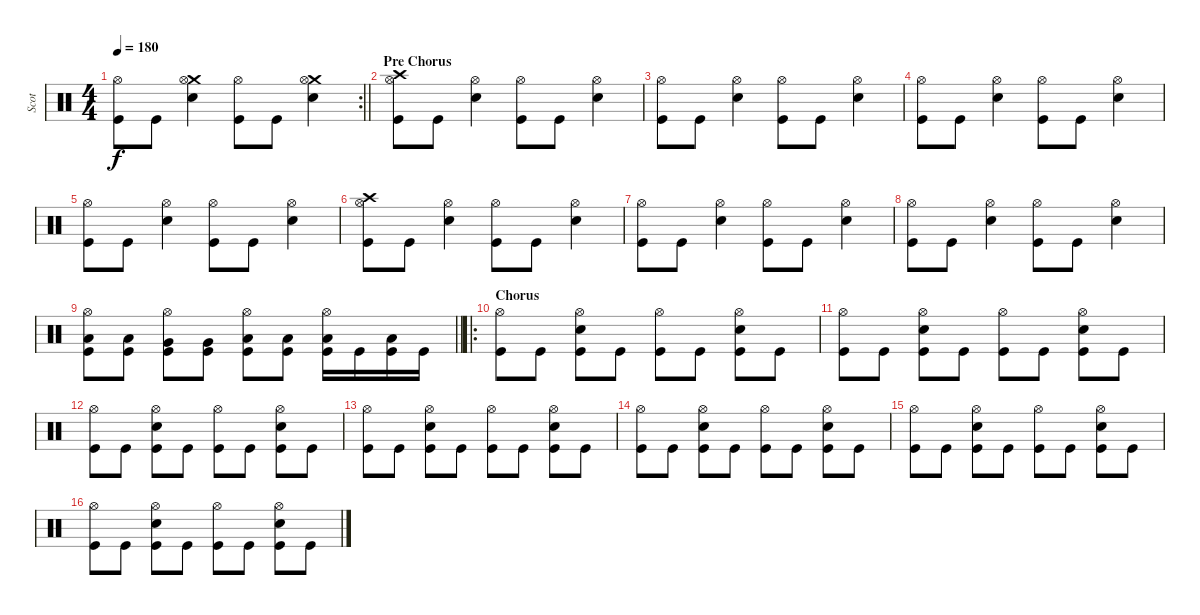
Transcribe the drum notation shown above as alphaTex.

\track ("Scot" "Scot") {instrument percussion}
\staff {score}
\articulation defaults
\rc 2
\ts (4 4)
\tempo 180
\clef neutral
\barLineRight lightlight
\ks c
("Hi-Hat (open)" "Kick (hit)").8{dy f} "Kick (hit)".8 ("Crash medium (hit)" "Electric Snare (hit)" "Hi-Hat (open)").4 ("Hi-Hat (open)" "Kick (hit)").8 "Kick (hit)".8 ("Crash medium (hit)" "Electric Snare (hit)" "Hi-Hat (open)").4 |
\section ("" "Pre Chorus")
("Crash high (hit)" "Hi-Hat (open)" "Kick (hit)").8 "Kick (hit)".8 ("Snare (hit) 2" "Hi-Hat (open)").4 ("Hi-Hat (open)" "Kick (hit)").8 "Kick (hit)".8 ("Snare (hit) 2" "Hi-Hat (open)").4 |
("Hi-Hat (open)" "Kick (hit)").8 "Kick (hit)".8 ("Snare (hit) 2" "Hi-Hat (open)").4 ("Hi-Hat (open)" "Kick (hit)").8 "Kick (hit)".8 ("Snare (hit) 2" "Hi-Hat (open)").4 |
("Hi-Hat (open)" "Kick (hit)").8 "Kick (hit)".8 ("Snare (hit) 2" "Hi-Hat (open)").4 ("Hi-Hat (open)" "Kick (hit)").8 "Kick (hit)".8 ("Snare (hit) 2" "Hi-Hat (open)").4 |
("Hi-Hat (open)" "Kick (hit)").8 "Kick (hit)".8 ("Snare (hit) 2" "Hi-Hat (open)").4 ("Hi-Hat (open)" "Kick (hit)").8 "Kick (hit)".8 ("Snare (hit) 2" "Hi-Hat (open)").4 |
("Crash high (hit)" "Hi-Hat (open)" "Kick (hit)").8 "Kick (hit)".8 ("Snare (hit) 2" "Hi-Hat (open)").4 ("Hi-Hat (open)" "Kick (hit)").8 "Kick (hit)".8 ("Snare (hit) 2" "Hi-Hat (open)").4 |
("Hi-Hat (open)" "Kick (hit)").8 "Kick (hit)".8 ("Snare (hit) 2" "Hi-Hat (open)").4 ("Hi-Hat (open)" "Kick (hit)").8 "Kick (hit)".8 ("Snare (hit) 2" "Hi-Hat (open)").4 |
("Hi-Hat (open)" "Kick (hit)").8 "Kick (hit)".8 ("Snare (hit) 2" "Hi-Hat (open)").4 ("Hi-Hat (open)" "Kick (hit)").8 "Kick (hit)".8 ("Snare (hit) 2" "Hi-Hat (open)").4 |
\barLineRight lightlight
("Low Tom (hit)" "Hi-Hat (open)" "Kick (hit)").8 ("Low Tom (hit)" "Kick (hit)").8 ("Very Low Tom (hit)" "Hi-Hat (open)" "Kick (hit)").8 ("Very Low Tom (hit)" "Kick (hit)").8 ("Low Floor Tom (hit)" "Hi-Hat (open)" "Kick (hit)").8 ("Low Floor Tom (hit)" "Kick (hit)").8 ("Low Floor Tom (hit)" "Hi-Hat (open)" "Kick (hit)").16 "Kick (hit)".16 ("Low Floor Tom (hit)" "Kick (hit)").16 "Kick (hit)".16 |
\ro
\section ("" "Chorus")
("Hi-Hat (open)" "Kick (hit)").8 "Kick (hit)".8 ("Electric Snare (hit)" "Hi-Hat (open)" "Kick (hit)").8 "Kick (hit)".8 ("Hi-Hat (open)" "Kick (hit)").8 "Kick (hit)".8 ("Electric Snare (hit)" "Hi-Hat (open)" "Kick (hit)").8 "Kick (hit)".8 |
("Hi-Hat (open)" "Kick (hit)").8 "Kick (hit)".8 ("Electric Snare (hit)" "Hi-Hat (open)" "Kick (hit)").8 "Kick (hit)".8 ("Hi-Hat (open)" "Kick (hit)").8 "Kick (hit)".8 ("Electric Snare (hit)" "Hi-Hat (open)" "Kick (hit)").8 "Kick (hit)".8 |
("Hi-Hat (open)" "Kick (hit)").8 "Kick (hit)".8 ("Electric Snare (hit)" "Hi-Hat (open)" "Kick (hit)").8 "Kick (hit)".8 ("Hi-Hat (open)" "Kick (hit)").8 "Kick (hit)".8 ("Electric Snare (hit)" "Hi-Hat (open)" "Kick (hit)").8 "Kick (hit)".8 |
("Hi-Hat (open)" "Kick (hit)").8 "Kick (hit)".8 ("Electric Snare (hit)" "Hi-Hat (open)" "Kick (hit)").8 "Kick (hit)".8 ("Hi-Hat (open)" "Kick (hit)").8 "Kick (hit)".8 ("Electric Snare (hit)" "Hi-Hat (open)" "Kick (hit)").8 "Kick (hit)".8 |
("Hi-Hat (open)" "Kick (hit)").8 "Kick (hit)".8 ("Electric Snare (hit)" "Hi-Hat (open)" "Kick (hit)").8 "Kick (hit)".8 ("Hi-Hat (open)" "Kick (hit)").8 "Kick (hit)".8 ("Electric Snare (hit)" "Hi-Hat (open)" "Kick (hit)").8 "Kick (hit)".8 |
("Hi-Hat (open)" "Kick (hit)").8 "Kick (hit)".8 ("Electric Snare (hit)" "Hi-Hat (open)" "Kick (hit)").8 "Kick (hit)".8 ("Hi-Hat (open)" "Kick (hit)").8 "Kick (hit)".8 ("Electric Snare (hit)" "Hi-Hat (open)" "Kick (hit)").8 "Kick (hit)".8 |
("Hi-Hat (open)" "Kick (hit)").8 "Kick (hit)".8 ("Electric Snare (hit)" "Hi-Hat (open)" "Kick (hit)").8 "Kick (hit)".8 ("Hi-Hat (open)" "Kick (hit)").8 "Kick (hit)".8 ("Electric Snare (hit)" "Hi-Hat (open)" "Kick (hit)").8 "Kick (hit)".8
